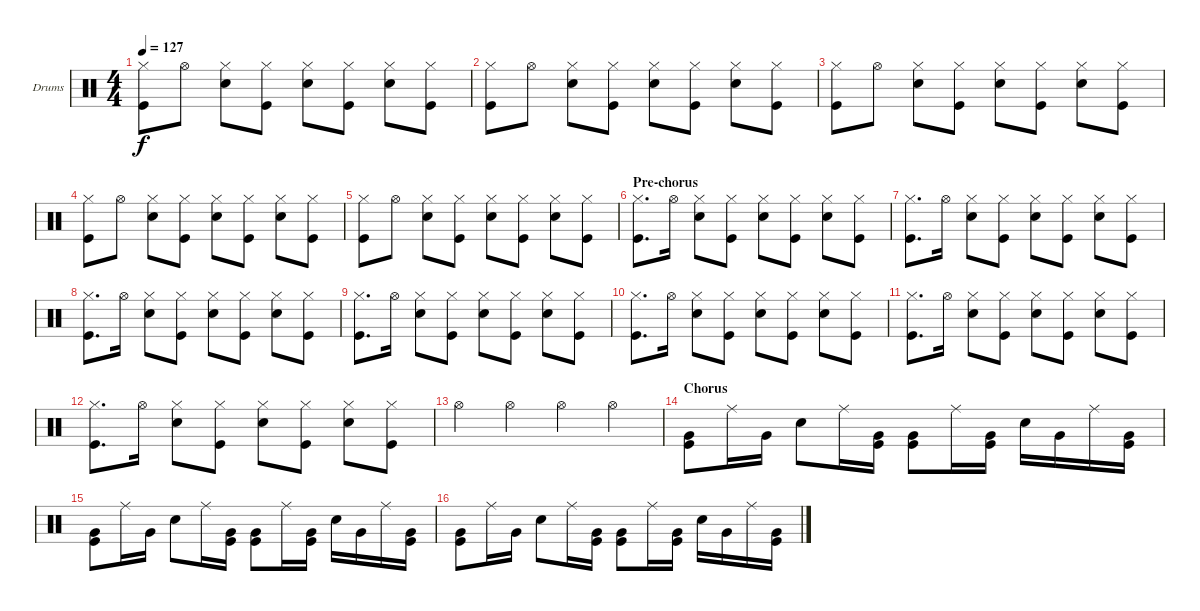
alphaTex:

\bracketExtendMode groupsimilarinstruments
\firstSystemTrackNameOrientation horizontal
\otherSystemsTrackNameOrientation horizontal
\track ("Drumkit" "Drums") {instrument percussion}
\staff {score}
\articulation defaults
\ts (4 4)
\tempo 127
\clef neutral
\ks c
("Hi-Hat (closed)" "Kick (hit)").8{dy f} "Hi-Hat (open)".8 ("Hi-Hat (closed)" "Snare (hit) 2").8 ("Hi-Hat (closed)" "Kick (hit)").8 ("Hi-Hat (closed)" "Snare (hit) 2").8 ("Hi-Hat (closed)" "Kick (hit)").8 ("Hi-Hat (closed)" "Snare (hit) 2").8 ("Hi-Hat (closed)" "Kick (hit)").8 |
("Hi-Hat (closed)" "Kick (hit)").8 "Hi-Hat (open)".8 ("Hi-Hat (closed)" "Snare (hit) 2").8 ("Hi-Hat (closed)" "Kick (hit)").8 ("Hi-Hat (closed)" "Snare (hit) 2").8 ("Hi-Hat (closed)" "Kick (hit)").8 ("Hi-Hat (closed)" "Snare (hit) 2").8 ("Hi-Hat (closed)" "Kick (hit)").8 |
("Hi-Hat (closed)" "Kick (hit)").8 "Hi-Hat (open)".8 ("Hi-Hat (closed)" "Snare (hit) 2").8 ("Hi-Hat (closed)" "Kick (hit)").8 ("Hi-Hat (closed)" "Snare (hit) 2").8 ("Hi-Hat (closed)" "Kick (hit)").8 ("Hi-Hat (closed)" "Snare (hit) 2").8 ("Hi-Hat (closed)" "Kick (hit)").8 |
("Hi-Hat (closed)" "Kick (hit)").8 "Hi-Hat (open)".8 ("Hi-Hat (closed)" "Snare (hit) 2").8 ("Hi-Hat (closed)" "Kick (hit)").8 ("Hi-Hat (closed)" "Snare (hit) 2").8 ("Hi-Hat (closed)" "Kick (hit)").8 ("Hi-Hat (closed)" "Snare (hit) 2").8 ("Hi-Hat (closed)" "Kick (hit)").8 |
("Hi-Hat (closed)" "Kick (hit)").8 "Hi-Hat (open)".8 ("Hi-Hat (closed)" "Snare (hit) 2").8 ("Hi-Hat (closed)" "Kick (hit)").8 ("Hi-Hat (closed)" "Snare (hit) 2").8 ("Hi-Hat (closed)" "Kick (hit)").8 ("Hi-Hat (closed)" "Snare (hit) 2").8 ("Hi-Hat (closed)" "Kick (hit)").8 |
\section ("" "Pre-chorus")
("Hi-Hat (closed)" "Kick (hit)").8{d} "Hi-Hat (open)".16 ("Hi-Hat (closed)" "Snare (hit) 2").8 ("Hi-Hat (closed)" "Kick (hit)").8 ("Hi-Hat (closed)" "Snare (hit) 2").8 ("Hi-Hat (closed)" "Kick (hit)").8 ("Hi-Hat (closed)" "Snare (hit) 2").8 ("Hi-Hat (closed)" "Kick (hit)").8 |
("Hi-Hat (closed)" "Kick (hit)").8{d} "Hi-Hat (open)".16 ("Hi-Hat (closed)" "Snare (hit) 2").8 ("Hi-Hat (closed)" "Kick (hit)").8 ("Hi-Hat (closed)" "Snare (hit) 2").8 ("Hi-Hat (closed)" "Kick (hit)").8 ("Hi-Hat (closed)" "Snare (hit) 2").8 ("Hi-Hat (closed)" "Kick (hit)").8 |
("Hi-Hat (closed)" "Kick (hit)").8{d} "Hi-Hat (open)".16 ("Hi-Hat (closed)" "Snare (hit) 2").8 ("Hi-Hat (closed)" "Kick (hit)").8 ("Hi-Hat (closed)" "Snare (hit) 2").8 ("Hi-Hat (closed)" "Kick (hit)").8 ("Hi-Hat (closed)" "Snare (hit) 2").8 ("Hi-Hat (closed)" "Kick (hit)").8 |
("Hi-Hat (closed)" "Kick (hit)").8{d} "Hi-Hat (open)".16 ("Hi-Hat (closed)" "Snare (hit) 2").8 ("Hi-Hat (closed)" "Kick (hit)").8 ("Hi-Hat (closed)" "Snare (hit) 2").8 ("Hi-Hat (closed)" "Kick (hit)").8 ("Hi-Hat (closed)" "Snare (hit) 2").8 ("Hi-Hat (closed)" "Kick (hit)").8 |
("Hi-Hat (closed)" "Kick (hit)").8{d} "Hi-Hat (open)".16 ("Hi-Hat (closed)" "Snare (hit) 2").8 ("Hi-Hat (closed)" "Kick (hit)").8 ("Hi-Hat (closed)" "Snare (hit) 2").8 ("Hi-Hat (closed)" "Kick (hit)").8 ("Hi-Hat (closed)" "Snare (hit) 2").8 ("Hi-Hat (closed)" "Kick (hit)").8 |
("Hi-Hat (closed)" "Kick (hit)").8{d} "Hi-Hat (open)".16 ("Hi-Hat (closed)" "Snare (hit) 2").8 ("Hi-Hat (closed)" "Kick (hit)").8 ("Hi-Hat (closed)" "Snare (hit) 2").8 ("Hi-Hat (closed)" "Kick (hit)").8 ("Hi-Hat (closed)" "Snare (hit) 2").8 ("Hi-Hat (closed)" "Kick (hit)").8 |
("Hi-Hat (closed)" "Kick (hit)").8{d} "Hi-Hat (open)".16 ("Hi-Hat (closed)" "Snare (hit) 2").8 ("Hi-Hat (closed)" "Kick (hit)").8 ("Hi-Hat (closed)" "Snare (hit) 2").8 ("Hi-Hat (closed)" "Kick (hit)").8 ("Hi-Hat (closed)" "Snare (hit) 2").8 ("Hi-Hat (closed)" "Kick (hit)").8 |
"Hi-Hat (open)".4 "Hi-Hat (open)".4 "Hi-Hat (open)".4 "Hi-Hat (open)".4 |
\section ("" "Chorus")
("Kick (hit)" "Very Low Tom (hit)").8 "Ride (middle)".16 "Very Low Tom (hit)".16 "Snare (hit) 2".8 "Ride (middle)".16 ("Kick (hit)" "Very Low Tom (hit)").16 ("Kick (hit)" "Very Low Tom (hit)").8 "Ride (middle)".16 ("Very Low Tom (hit)" "Kick (hit)").16 "Snare (hit) 2".16 "Very Low Tom (hit)".16 "Ride (middle)".16 ("Kick (hit)" "Very Low Tom (hit)").16 |
("Kick (hit)" "Very Low Tom (hit)").8 "Ride (middle)".16 "Very Low Tom (hit)".16 "Snare (hit) 2".8 "Ride (middle)".16 ("Kick (hit)" "Very Low Tom (hit)").16 ("Kick (hit)" "Very Low Tom (hit)").8 "Ride (middle)".16 ("Very Low Tom (hit)" "Kick (hit)").16 "Snare (hit) 2".16 "Very Low Tom (hit)".16 "Ride (middle)".16 ("Kick (hit)" "Very Low Tom (hit)").16 |
("Kick (hit)" "Very Low Tom (hit)").8 "Ride (middle)".16 "Very Low Tom (hit)".16 "Snare (hit) 2".8 "Ride (middle)".16 ("Kick (hit)" "Very Low Tom (hit)").16 ("Kick (hit)" "Very Low Tom (hit)").8 "Ride (middle)".16 ("Very Low Tom (hit)" "Kick (hit)").16 "Snare (hit) 2".16 "Very Low Tom (hit)".16 "Ride (middle)".16 ("Kick (hit)" "Very Low Tom (hit)").16
